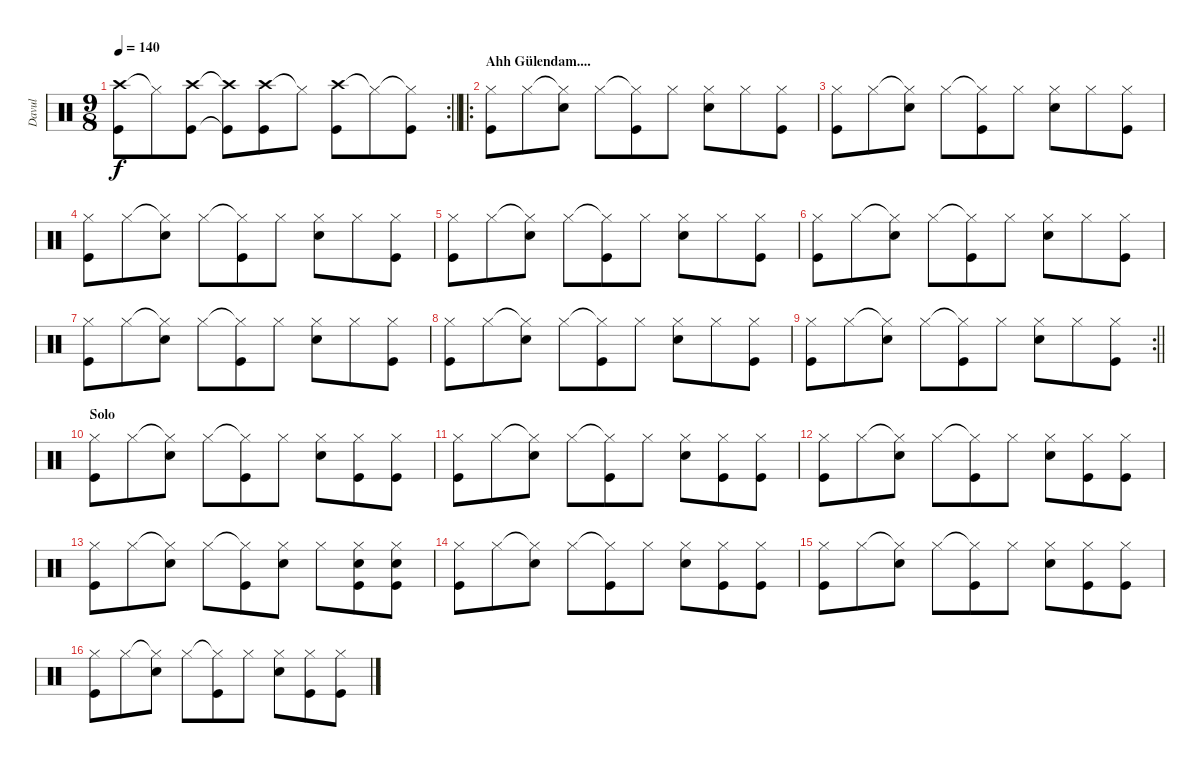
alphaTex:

\track ("Davul" "Davul") {instrument percussion}
\staff {score}
\articulation defaults
\rc 2
\ts (9 8)
\tempo 140
\clef neutral
\barLineRight lightlight
\ks c
("Crash high (hit)" "Kick (hit)").8{dy f} "Hi-Hat (closed)"{t}.8 ("Crash high (hit)" "Kick (hit)").8 ("Crash high (hit)"{t} "Kick (hit)"{t}).8 ("Crash high (hit)" "Kick (hit)").8 "Hi-Hat (closed)"{t}.8 ("Crash high (hit)" "Kick (hit)").8 "Hi-Hat (closed)"{t}.8 ("Hi-Hat (closed)"{t} "Kick (hit)").8 |
\ro
\section ("" "Ahh Gülendam....")
("Hi-Hat (closed)" "Kick (hit)").8 "Hi-Hat (closed)".8 ("Hi-Hat (closed)"{t} "Snare (hit) 2").8 "Hi-Hat (closed)".8 ("Hi-Hat (closed)"{t} "Kick (hit)").8 "Hi-Hat (closed)".8 ("Hi-Hat (closed)" "Snare (hit) 2").8 "Hi-Hat (closed)".8 ("Hi-Hat (closed)" "Kick (hit)").8 |
("Hi-Hat (closed)" "Kick (hit)").8 "Hi-Hat (closed)".8 ("Hi-Hat (closed)"{t} "Snare (hit) 2").8 "Hi-Hat (closed)".8 ("Hi-Hat (closed)"{t} "Kick (hit)").8 "Hi-Hat (closed)".8 ("Hi-Hat (closed)" "Snare (hit) 2").8 "Hi-Hat (closed)".8 ("Hi-Hat (closed)" "Kick (hit)").8 |
("Hi-Hat (closed)" "Kick (hit)").8 "Hi-Hat (closed)".8 ("Hi-Hat (closed)"{t} "Snare (hit) 2").8 "Hi-Hat (closed)".8 ("Hi-Hat (closed)"{t} "Kick (hit)").8 "Hi-Hat (closed)".8 ("Hi-Hat (closed)" "Snare (hit) 2").8 "Hi-Hat (closed)".8 ("Hi-Hat (closed)" "Kick (hit)").8 |
("Hi-Hat (closed)" "Kick (hit)").8 "Hi-Hat (closed)".8 ("Hi-Hat (closed)"{t} "Snare (hit) 2").8 "Hi-Hat (closed)".8 ("Hi-Hat (closed)"{t} "Kick (hit)").8 "Hi-Hat (closed)".8 ("Hi-Hat (closed)" "Snare (hit) 2").8 "Hi-Hat (closed)".8 ("Hi-Hat (closed)" "Kick (hit)").8 |
("Hi-Hat (closed)" "Kick (hit)").8 "Hi-Hat (closed)".8 ("Hi-Hat (closed)"{t} "Snare (hit) 2").8 "Hi-Hat (closed)".8 ("Hi-Hat (closed)"{t} "Kick (hit)").8 "Hi-Hat (closed)".8 ("Hi-Hat (closed)" "Snare (hit) 2").8 "Hi-Hat (closed)".8 ("Hi-Hat (closed)" "Kick (hit)").8 |
("Hi-Hat (closed)" "Kick (hit)").8 "Hi-Hat (closed)".8 ("Hi-Hat (closed)"{t} "Snare (hit) 2").8 "Hi-Hat (closed)".8 ("Hi-Hat (closed)"{t} "Kick (hit)").8 "Hi-Hat (closed)".8 ("Hi-Hat (closed)" "Snare (hit) 2").8 "Hi-Hat (closed)".8 ("Hi-Hat (closed)" "Kick (hit)").8 |
("Hi-Hat (closed)" "Kick (hit)").8 "Hi-Hat (closed)".8 ("Hi-Hat (closed)"{t} "Snare (hit) 2").8 "Hi-Hat (closed)".8 ("Hi-Hat (closed)"{t} "Kick (hit)").8 "Hi-Hat (closed)".8 ("Hi-Hat (closed)" "Snare (hit) 2").8 "Hi-Hat (closed)".8 ("Hi-Hat (closed)" "Kick (hit)").8 |
\rc 2
\barLineRight lightlight
("Hi-Hat (closed)" "Kick (hit)").8 "Hi-Hat (closed)".8 ("Hi-Hat (closed)"{t} "Snare (hit) 2").8 "Hi-Hat (closed)".8 ("Hi-Hat (closed)"{t} "Kick (hit)").8 "Hi-Hat (closed)".8 ("Hi-Hat (closed)" "Snare (hit) 2").8 "Hi-Hat (closed)".8 ("Hi-Hat (closed)" "Kick (hit)").8 |
\section ("" "Solo")
("Hi-Hat (closed)" "Kick (hit)").8 "Hi-Hat (closed)".8 ("Hi-Hat (closed)"{t} "Snare (hit) 2").8 "Hi-Hat (closed)".8 ("Hi-Hat (closed)"{t} "Kick (hit)").8 "Hi-Hat (closed)".8 ("Hi-Hat (closed)" "Snare (hit) 2").8 ("Hi-Hat (closed)" "Kick (hit)").8 ("Hi-Hat (closed)" "Kick (hit)").8 |
("Hi-Hat (closed)" "Kick (hit)").8 "Hi-Hat (closed)".8 ("Hi-Hat (closed)"{t} "Snare (hit) 2").8 "Hi-Hat (closed)".8 ("Hi-Hat (closed)"{t} "Kick (hit)").8 "Hi-Hat (closed)".8 ("Hi-Hat (closed)" "Snare (hit) 2").8 ("Hi-Hat (closed)" "Kick (hit)").8 ("Hi-Hat (closed)" "Kick (hit)").8 |
("Hi-Hat (closed)" "Kick (hit)").8 "Hi-Hat (closed)".8 ("Hi-Hat (closed)"{t} "Snare (hit) 2").8 "Hi-Hat (closed)".8 ("Hi-Hat (closed)"{t} "Kick (hit)").8 "Hi-Hat (closed)".8 ("Hi-Hat (closed)" "Snare (hit) 2").8 ("Hi-Hat (closed)" "Kick (hit)").8 ("Hi-Hat (closed)" "Kick (hit)").8 |
("Hi-Hat (closed)" "Kick (hit)").8 "Hi-Hat (closed)".8 ("Hi-Hat (closed)"{t} "Snare (hit) 2").8 "Hi-Hat (closed)".8 ("Hi-Hat (closed)"{t} "Kick (hit)").8 ("Hi-Hat (closed)" "Snare (hit) 2").8 "Hi-Hat (closed)".8 ("Hi-Hat (closed)" "Snare (hit) 2" "Kick (hit)").8 ("Hi-Hat (closed)" "Snare (hit) 2" "Kick (hit)").8 |
("Hi-Hat (closed)" "Kick (hit)").8 "Hi-Hat (closed)".8 ("Hi-Hat (closed)"{t} "Snare (hit) 2").8 "Hi-Hat (closed)".8 ("Hi-Hat (closed)"{t} "Kick (hit)").8 "Hi-Hat (closed)".8 ("Hi-Hat (closed)" "Snare (hit) 2").8 ("Hi-Hat (closed)" "Kick (hit)").8 ("Hi-Hat (closed)" "Kick (hit)").8 |
("Hi-Hat (closed)" "Kick (hit)").8 "Hi-Hat (closed)".8 ("Hi-Hat (closed)"{t} "Snare (hit) 2").8 "Hi-Hat (closed)".8 ("Hi-Hat (closed)"{t} "Kick (hit)").8 "Hi-Hat (closed)".8 ("Hi-Hat (closed)" "Snare (hit) 2").8 ("Hi-Hat (closed)" "Kick (hit)").8 ("Hi-Hat (closed)" "Kick (hit)").8 |
("Hi-Hat (closed)" "Kick (hit)").8 "Hi-Hat (closed)".8 ("Hi-Hat (closed)"{t} "Snare (hit) 2").8 "Hi-Hat (closed)".8 ("Hi-Hat (closed)"{t} "Kick (hit)").8 "Hi-Hat (closed)".8 ("Hi-Hat (closed)" "Snare (hit) 2").8 ("Hi-Hat (closed)" "Kick (hit)").8 ("Hi-Hat (closed)" "Kick (hit)").8
